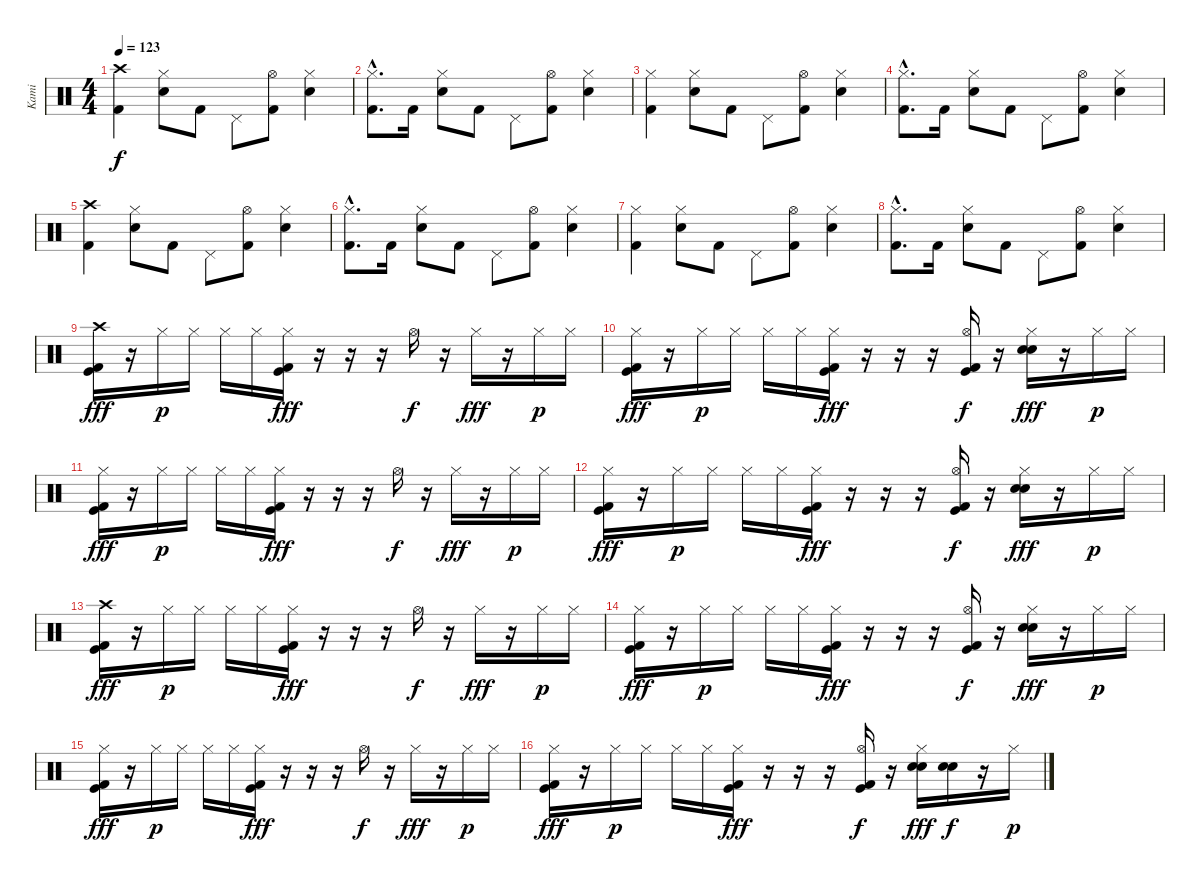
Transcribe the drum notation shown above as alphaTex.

\track ("Kami" "Kami") {instrument percussion}
\staff {score}
\articulation defaults
\ts (4 4)
\tempo 123
\clef neutral
\ks c
("Kick (hit) 2" "Crash high (hit)").4{dy f} ("Electric Snare (hit)" "Hi-Hat (closed)").8 "Kick (hit) 2".8 "Pedal Hi-Hat (hit)".8 ("Kick (hit) 2" "Hi-Hat (open)").8 ("Electric Snare (hit)" "Hi-Hat (closed)").4 |
("Kick (hit) 2"{hac} "Hi-Hat (closed)"{hac}).8{d} "Kick (hit) 2".16 ("Electric Snare (hit)" "Hi-Hat (closed)").8 "Kick (hit) 2".8 "Pedal Hi-Hat (hit)".8 ("Kick (hit) 2" "Hi-Hat (open)").8 ("Electric Snare (hit)" "Hi-Hat (closed)").4 |
("Kick (hit) 2" "Hi-Hat (closed)").4 ("Electric Snare (hit)" "Hi-Hat (closed)").8 "Kick (hit) 2".8 "Pedal Hi-Hat (hit)".8 ("Kick (hit) 2" "Hi-Hat (open)").8 ("Electric Snare (hit)" "Hi-Hat (closed)").4 |
("Kick (hit) 2"{hac} "Hi-Hat (closed)"{hac}).8{d} "Kick (hit) 2".16 ("Electric Snare (hit)" "Hi-Hat (closed)").8 "Kick (hit) 2".8 "Pedal Hi-Hat (hit)".8 ("Kick (hit) 2" "Hi-Hat (open)").8 ("Electric Snare (hit)" "Hi-Hat (closed)").4 |
("Kick (hit) 2" "Crash high (hit)").4 ("Electric Snare (hit)" "Hi-Hat (closed)").8 "Kick (hit) 2".8 "Pedal Hi-Hat (hit)".8 ("Kick (hit) 2" "Hi-Hat (open)").8 ("Electric Snare (hit)" "Hi-Hat (closed)").4 |
("Kick (hit) 2"{hac} "Hi-Hat (closed)"{hac}).8{d} "Kick (hit) 2".16 ("Electric Snare (hit)" "Hi-Hat (closed)").8 "Kick (hit) 2".8 "Pedal Hi-Hat (hit)".8 ("Kick (hit) 2" "Hi-Hat (open)").8 ("Electric Snare (hit)" "Hi-Hat (closed)").4 |
("Kick (hit) 2" "Hi-Hat (closed)").4 ("Electric Snare (hit)" "Hi-Hat (closed)").8 "Kick (hit) 2".8 "Pedal Hi-Hat (hit)".8 ("Kick (hit) 2" "Hi-Hat (open)").8 ("Electric Snare (hit)" "Hi-Hat (closed)").4 |
("Kick (hit) 2"{hac} "Hi-Hat (closed)"{hac}).8{d} "Kick (hit) 2".16 ("Electric Snare (hit)" "Hi-Hat (closed)").8 "Kick (hit) 2".8 "Pedal Hi-Hat (hit)".8 ("Kick (hit) 2" "Hi-Hat (open)").8 ("Electric Snare (hit)" "Hi-Hat (closed)").4 |
("Kick (hit) 2" "Kick (hit)" "Crash high (hit)").16{dy fff} r.16 "Hi-Hat (closed)".16{dy p} "Hi-Hat (closed)".16 "Hi-Hat (closed)".16 "Hi-Hat (closed)".16 ("Kick (hit) 2" "Kick (hit)" "Hi-Hat (closed)").16{dy fff} r.16 r.16 r.16 "Hi-Hat (open)".16{dy f} r.16 "Hi-Hat (closed)".16{dy fff} r.16 "Hi-Hat (closed)".16{dy p} "Hi-Hat (closed)".16 |
("Kick (hit) 2" "Kick (hit)" "Hi-Hat (closed)").16{dy fff} r.16 "Hi-Hat (closed)".16{dy p} "Hi-Hat (closed)".16 "Hi-Hat (closed)".16 "Hi-Hat (closed)".16 ("Kick (hit) 2" "Kick (hit)" "Hi-Hat (closed)").16{dy fff} r.16 r.16 r.16 ("Kick (hit) 2" "Kick (hit)" "Hi-Hat (open)").16{dy f} r.16 ("Snare (hit) 2" "Electric Snare (hit)" "Hi-Hat (closed)").16{dy fff} r.16 "Hi-Hat (closed)".16{dy p} "Hi-Hat (closed)".16 |
("Kick (hit) 2" "Kick (hit)" "Hi-Hat (closed)").16{dy fff} r.16 "Hi-Hat (closed)".16{dy p} "Hi-Hat (closed)".16 "Hi-Hat (closed)".16 "Hi-Hat (closed)".16 ("Kick (hit) 2" "Kick (hit)" "Hi-Hat (closed)").16{dy fff} r.16 r.16 r.16 "Hi-Hat (open)".16{dy f} r.16 "Hi-Hat (closed)".16{dy fff} r.16 "Hi-Hat (closed)".16{dy p} "Hi-Hat (closed)".16 |
("Kick (hit) 2" "Kick (hit)" "Hi-Hat (closed)").16{dy fff} r.16 "Hi-Hat (closed)".16{dy p} "Hi-Hat (closed)".16 "Hi-Hat (closed)".16 "Hi-Hat (closed)".16 ("Kick (hit) 2" "Kick (hit)" "Hi-Hat (closed)").16{dy fff} r.16 r.16 r.16 ("Kick (hit) 2" "Kick (hit)" "Hi-Hat (open)").16{dy f} r.16 ("Snare (hit) 2" "Electric Snare (hit)" "Hi-Hat (closed)").16{dy fff} r.16 "Hi-Hat (closed)".16{dy p} "Hi-Hat (closed)".16 |
("Kick (hit) 2" "Kick (hit)" "Crash high (hit)").16{dy fff} r.16 "Hi-Hat (closed)".16{dy p} "Hi-Hat (closed)".16 "Hi-Hat (closed)".16 "Hi-Hat (closed)".16 ("Kick (hit) 2" "Kick (hit)" "Hi-Hat (closed)").16{dy fff} r.16 r.16 r.16 "Hi-Hat (open)".16{dy f} r.16 "Hi-Hat (closed)".16{dy fff} r.16 "Hi-Hat (closed)".16{dy p} "Hi-Hat (closed)".16 |
("Kick (hit) 2" "Kick (hit)" "Hi-Hat (closed)").16{dy fff} r.16 "Hi-Hat (closed)".16{dy p} "Hi-Hat (closed)".16 "Hi-Hat (closed)".16 "Hi-Hat (closed)".16 ("Kick (hit) 2" "Kick (hit)" "Hi-Hat (closed)").16{dy fff} r.16 r.16 r.16 ("Kick (hit) 2" "Kick (hit)" "Hi-Hat (open)").16{dy f} r.16 ("Snare (hit) 2" "Electric Snare (hit)" "Hi-Hat (closed)").16{dy fff} r.16 "Hi-Hat (closed)".16{dy p} "Hi-Hat (closed)".16 |
("Kick (hit) 2" "Kick (hit)" "Hi-Hat (closed)").16{dy fff} r.16 "Hi-Hat (closed)".16{dy p} "Hi-Hat (closed)".16 "Hi-Hat (closed)".16 "Hi-Hat (closed)".16 ("Kick (hit) 2" "Kick (hit)" "Hi-Hat (closed)").16{dy fff} r.16 r.16 r.16 "Hi-Hat (open)".16{dy f} r.16 "Hi-Hat (closed)".16{dy fff} r.16 "Hi-Hat (closed)".16{dy p} "Hi-Hat (closed)".16 |
("Kick (hit) 2" "Kick (hit)" "Hi-Hat (closed)").16{dy fff} r.16 "Hi-Hat (closed)".16{dy p} "Hi-Hat (closed)".16 "Hi-Hat (closed)".16 "Hi-Hat (closed)".16 ("Kick (hit) 2" "Kick (hit)" "Hi-Hat (closed)").16{dy fff} r.16 r.16 r.16 ("Kick (hit) 2" "Kick (hit)" "Hi-Hat (open)").16{dy f} r.16 ("Snare (hit) 2" "Electric Snare (hit)" "Hi-Hat (closed)").16{dy fff} ("Snare (hit) 2" "Electric Snare (hit)").16{dy f} r.16 "Hi-Hat (closed)".16{dy p}
